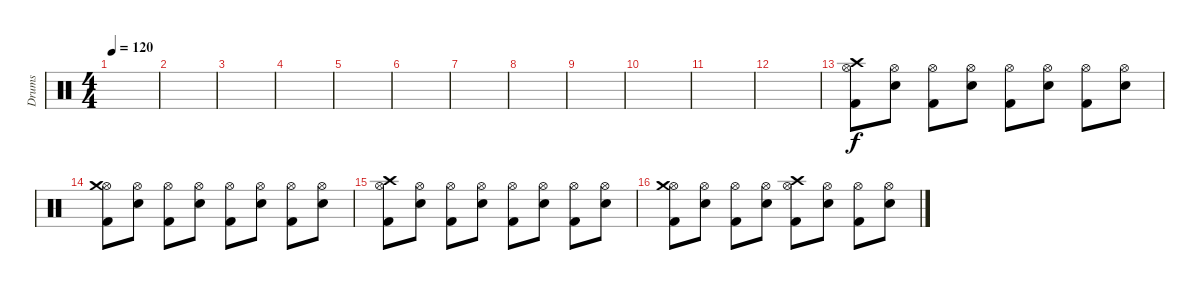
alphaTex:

\track ("Drums" "Drums") {instrument percussion}
\staff {score}
\articulation defaults
\ts (4 4)
\tempo 120
\clef neutral
\ks c
|
|
|
|
|
|
|
|
|
|
|
|
("Hi-Hat (open)" "Kick (hit) 2" "Crash high (hit)").8 ("Hi-Hat (open)" "Electric Snare (hit)").8 ("Hi-Hat (open)" "Kick (hit) 2").8 ("Hi-Hat (open)" "Electric Snare (hit)").8 ("Hi-Hat (open)" "Kick (hit) 2").8 ("Hi-Hat (open)" "Electric Snare (hit)").8 ("Hi-Hat (open)" "Kick (hit) 2").8 ("Hi-Hat (open)" "Electric Snare (hit)").8 |
("Hi-Hat (open)" "Kick (hit) 2" "Crash medium (hit)").8 ("Hi-Hat (open)" "Electric Snare (hit)").8 ("Hi-Hat (open)" "Kick (hit) 2").8 ("Hi-Hat (open)" "Electric Snare (hit)").8 ("Hi-Hat (open)" "Kick (hit) 2").8 ("Hi-Hat (open)" "Electric Snare (hit)").8 ("Hi-Hat (open)" "Kick (hit) 2").8 ("Hi-Hat (open)" "Electric Snare (hit)").8 |
("Hi-Hat (open)" "Kick (hit) 2" "Crash high (hit)").8 ("Hi-Hat (open)" "Electric Snare (hit)").8 ("Hi-Hat (open)" "Kick (hit) 2").8 ("Hi-Hat (open)" "Electric Snare (hit)").8 ("Hi-Hat (open)" "Kick (hit) 2").8 ("Hi-Hat (open)" "Electric Snare (hit)").8 ("Hi-Hat (open)" "Kick (hit) 2").8 ("Hi-Hat (open)" "Electric Snare (hit)").8 |
("Hi-Hat (open)" "Kick (hit) 2" "Crash medium (hit)").8 ("Hi-Hat (open)" "Electric Snare (hit)").8 ("Hi-Hat (open)" "Kick (hit) 2").8 ("Hi-Hat (open)" "Electric Snare (hit)").8 ("Hi-Hat (open)" "Kick (hit) 2" "Crash high (hit)").8 ("Hi-Hat (open)" "Electric Snare (hit)").8 ("Hi-Hat (open)" "Kick (hit) 2").8 ("Hi-Hat (open)" "Electric Snare (hit)").8
